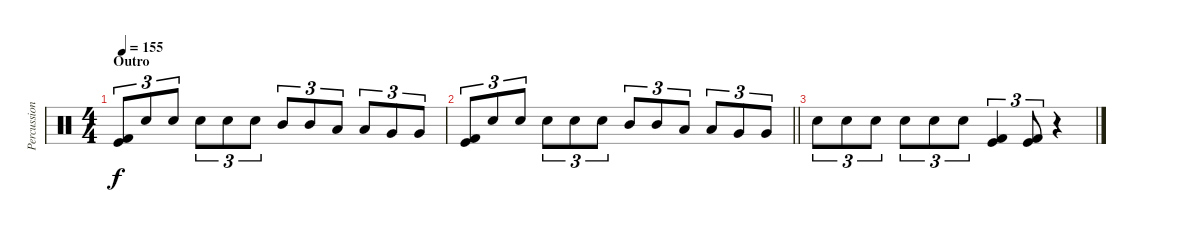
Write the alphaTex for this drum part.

\track ("Percussion" "Percussion") {instrument percussion}
\staff {score}
\articulation defaults
\ts (4 4)
\section ("" "Outro")
\tempo 155
\clef neutral
\ks c
("Kick (hit)" "Kick (hit) 2").8{tu (3 2) dy f} "Electric Snare (hit)".8{tu (3 2)} "Electric Snare (hit)".8{tu (3 2)} "Electric Snare (hit)".8{tu (3 2)} "Electric Snare (hit)".8{tu (3 2)} "Electric Snare (hit)".8{tu (3 2)} "Mid Tom (hit)".8{tu (3 2)} "Mid Tom (hit)".8{tu (3 2)} "Low Tom (hit)".8{tu (3 2)} "Low Tom (hit)".8{tu (3 2)} "Very Low Tom (hit)".8{tu (3 2)} "Very Low Tom (hit)".8{tu (3 2)} |
\barLineRight lightlight
("Kick (hit)" "Kick (hit) 2").8{tu (3 2)} "Electric Snare (hit)".8{tu (3 2)} "Electric Snare (hit)".8{tu (3 2)} "Electric Snare (hit)".8{tu (3 2)} "Electric Snare (hit)".8{tu (3 2)} "Electric Snare (hit)".8{tu (3 2)} "Mid Tom (hit)".8{tu (3 2)} "Mid Tom (hit)".8{tu (3 2)} "Low Tom (hit)".8{tu (3 2)} "Low Tom (hit)".8{tu (3 2)} "Very Low Tom (hit)".8{tu (3 2)} "Very Low Tom (hit)".8{tu (3 2)} |
"Electric Snare (hit)".8{tu (3 2)} "Electric Snare (hit)".8{tu (3 2)} "Electric Snare (hit)".8{tu (3 2)} "Electric Snare (hit)".8{tu (3 2)} "Electric Snare (hit)".8{tu (3 2)} "Electric Snare (hit)".8{tu (3 2)} ("Kick (hit)" "Kick (hit) 2").4{tu (3 2)} ("Kick (hit)" "Kick (hit) 2").8{tu (3 2)} r.4
